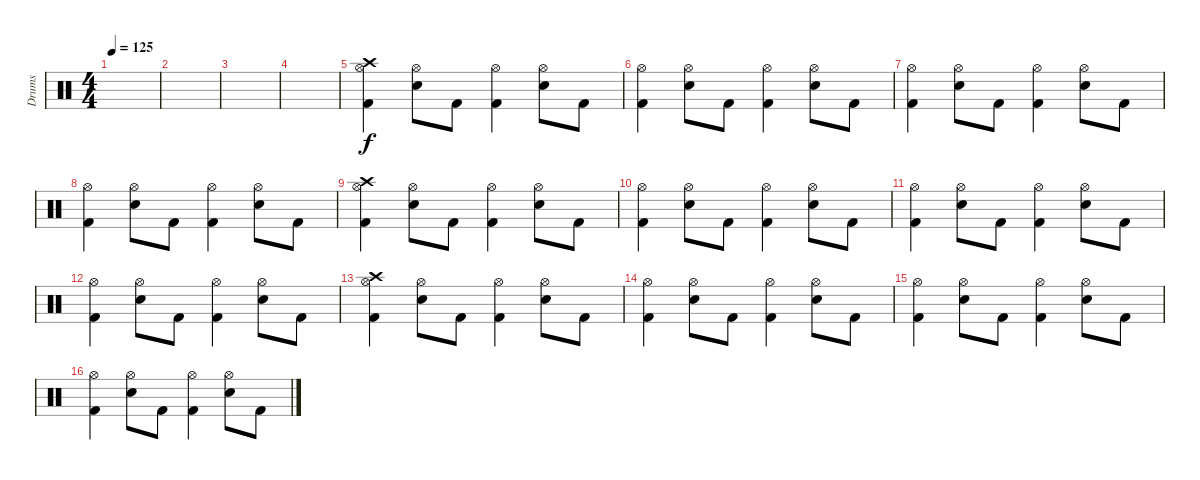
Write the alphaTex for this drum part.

\track ("Drums" "Drums") {instrument percussion}
\staff {score}
\articulation defaults
\ts (4 4)
\tempo 125
\clef neutral
\ks c
|
|
|
|
("Crash high (hit)" "Hi-Hat (open)" "Kick (hit) 2").4 ("Hi-Hat (open)" "Snare (hit) 2").8 "Kick (hit) 2".8 ("Hi-Hat (open)" "Kick (hit) 2").4 ("Hi-Hat (open)" "Snare (hit) 2").8 "Kick (hit) 2".8 |
("Hi-Hat (open)" "Kick (hit) 2").4 ("Hi-Hat (open)" "Snare (hit) 2").8 "Kick (hit) 2".8 ("Hi-Hat (open)" "Kick (hit) 2").4 ("Hi-Hat (open)" "Snare (hit) 2").8 "Kick (hit) 2".8 |
("Hi-Hat (open)" "Kick (hit) 2").4 ("Hi-Hat (open)" "Snare (hit) 2").8 "Kick (hit) 2".8 ("Hi-Hat (open)" "Kick (hit) 2").4 ("Hi-Hat (open)" "Snare (hit) 2").8 "Kick (hit) 2".8 |
("Hi-Hat (open)" "Kick (hit) 2").4 ("Hi-Hat (open)" "Snare (hit) 2").8 "Kick (hit) 2".8 ("Hi-Hat (open)" "Kick (hit) 2").4 ("Hi-Hat (open)" "Snare (hit) 2").8 "Kick (hit) 2".8 |
("Crash high (hit)" "Hi-Hat (open)" "Kick (hit) 2").4 ("Hi-Hat (open)" "Snare (hit) 2").8 "Kick (hit) 2".8 ("Hi-Hat (open)" "Kick (hit) 2").4 ("Hi-Hat (open)" "Snare (hit) 2").8 "Kick (hit) 2".8 |
("Hi-Hat (open)" "Kick (hit) 2").4 ("Hi-Hat (open)" "Snare (hit) 2").8 "Kick (hit) 2".8 ("Hi-Hat (open)" "Kick (hit) 2").4 ("Hi-Hat (open)" "Snare (hit) 2").8 "Kick (hit) 2".8 |
("Hi-Hat (open)" "Kick (hit) 2").4 ("Hi-Hat (open)" "Snare (hit) 2").8 "Kick (hit) 2".8 ("Hi-Hat (open)" "Kick (hit) 2").4 ("Hi-Hat (open)" "Snare (hit) 2").8 "Kick (hit) 2".8 |
("Hi-Hat (open)" "Kick (hit) 2").4 ("Hi-Hat (open)" "Snare (hit) 2").8 "Kick (hit) 2".8 ("Hi-Hat (open)" "Kick (hit) 2").4 ("Hi-Hat (open)" "Snare (hit) 2").8 "Kick (hit) 2".8 |
("Crash high (hit)" "Hi-Hat (open)" "Kick (hit) 2").4 ("Hi-Hat (open)" "Snare (hit) 2").8 "Kick (hit) 2".8 ("Hi-Hat (open)" "Kick (hit) 2").4 ("Hi-Hat (open)" "Snare (hit) 2").8 "Kick (hit) 2".8 |
("Hi-Hat (open)" "Kick (hit) 2").4 ("Hi-Hat (open)" "Snare (hit) 2").8 "Kick (hit) 2".8 ("Hi-Hat (open)" "Kick (hit) 2").4 ("Hi-Hat (open)" "Snare (hit) 2").8 "Kick (hit) 2".8 |
("Hi-Hat (open)" "Kick (hit) 2").4 ("Hi-Hat (open)" "Snare (hit) 2").8 "Kick (hit) 2".8 ("Hi-Hat (open)" "Kick (hit) 2").4 ("Hi-Hat (open)" "Snare (hit) 2").8 "Kick (hit) 2".8 |
("Hi-Hat (open)" "Kick (hit) 2").4 ("Hi-Hat (open)" "Snare (hit) 2").8 "Kick (hit) 2".8 ("Hi-Hat (open)" "Kick (hit) 2").4 ("Hi-Hat (open)" "Snare (hit) 2").8 "Kick (hit) 2".8
